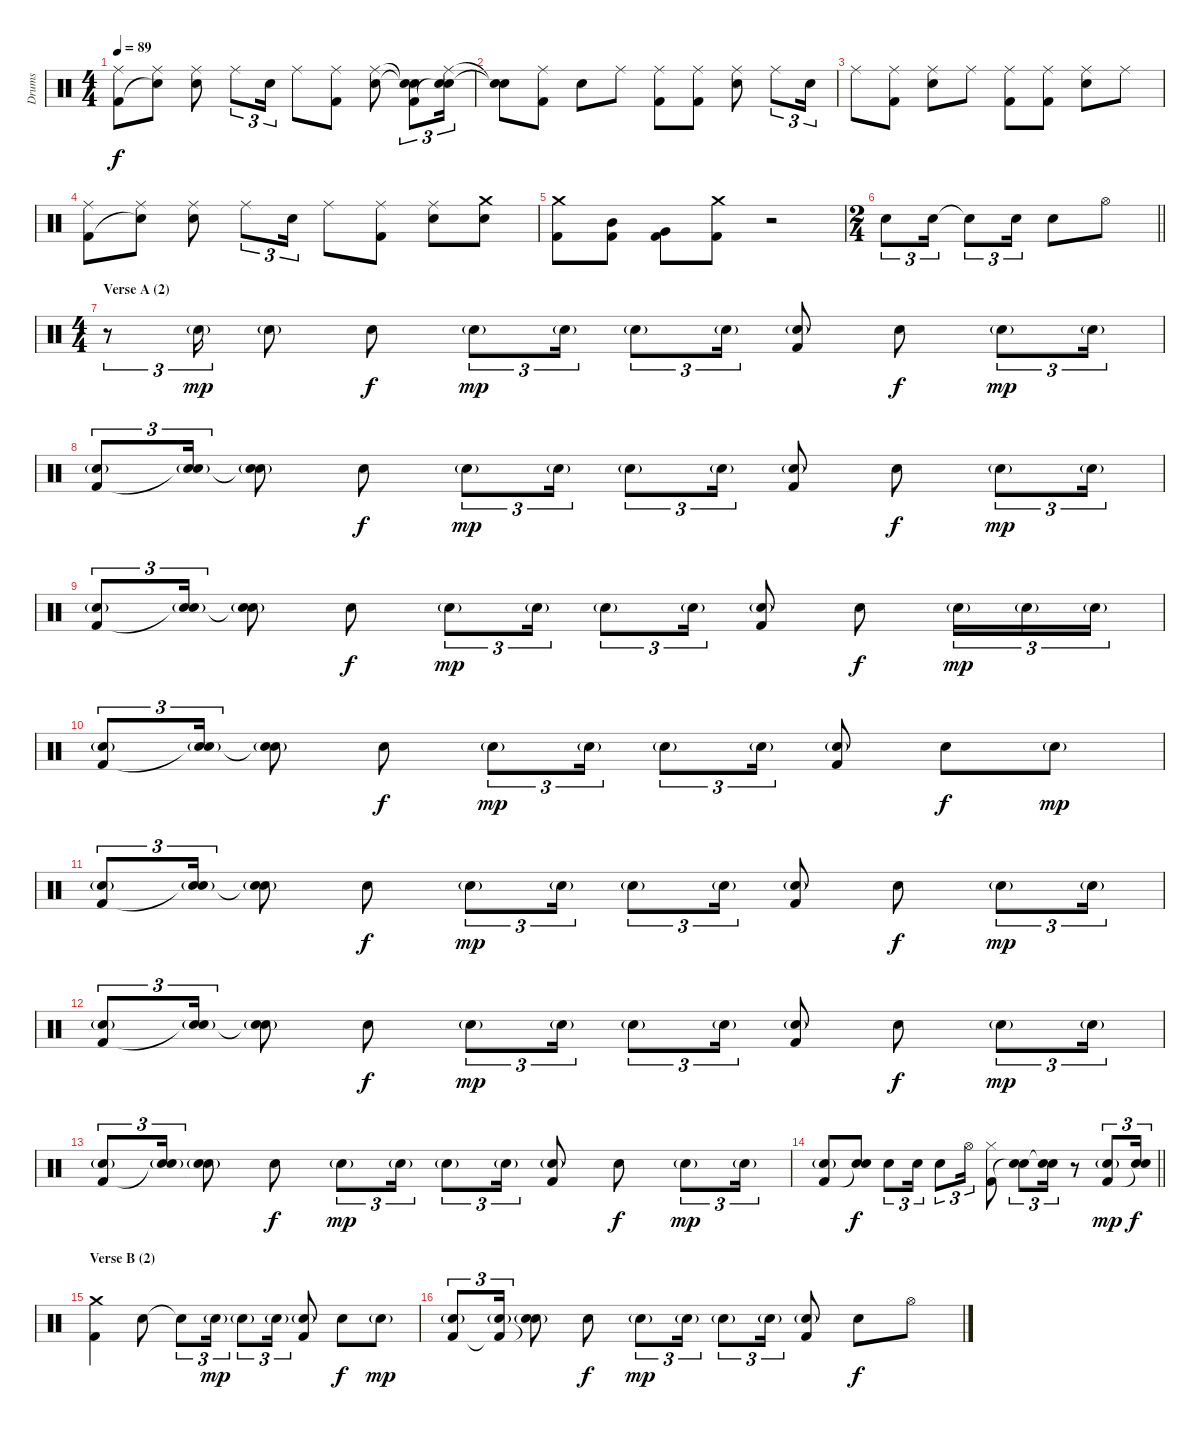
\track ("Drums" "Drums") {instrument percussion}
\staff {score}
\articulation defaults
\ts (4 4)
\tempo 89
\clef neutral
\ks c
("Ride (middle)" "Kick (hit) 2").8{dy f} ("Ride (middle)" "Snare (hit)"{t}).8 ("Ride (middle)" "Electric Snare (hit)").8 "Ride (middle)".8{tu (3 2)} "Electric Snare (hit)".16{tu (3 2)} "Ride (middle)".8 ("Ride (middle)" "Kick (hit) 2").8 ("Ride (middle)" "Electric Snare (hit)").8 ("Snare (hit)"{t} "Snare (hit)"{t} "Kick (hit) 2").8{tu (3 2)} ("Ride (middle)" "Electric Snare (hit)" "Snare (hit)"{t}).16{tu (3 2)} |
("Snare (hit)"{t} "Snare (hit)"{t}).8 ("Ride (middle)" "Kick (hit) 2").8 "Electric Snare (hit)".8 "Ride (middle)".8 ("Ride (middle)" "Kick (hit) 2").8 ("Ride (middle)" "Kick (hit) 2").8 ("Ride (middle)" "Electric Snare (hit)").8 "Ride (middle)".8{tu (3 2)} "Electric Snare (hit)".16{tu (3 2)} |
"Ride (middle)".8 ("Ride (middle)" "Kick (hit) 2").8 ("Ride (middle)" "Electric Snare (hit)").8 "Ride (middle)".8 ("Ride (middle)" "Kick (hit) 2").8 ("Ride (middle)" "Kick (hit) 2").8 ("Ride (middle)" "Electric Snare (hit)").8 "Ride (middle)".8 |
("Ride (middle)" "Kick (hit) 2").8 ("Ride (middle)" "Snare (hit)"{t}).8 ("Ride (middle)" "Electric Snare (hit)").8 "Ride (middle)".8{tu (3 2)} "Electric Snare (hit)".16{tu (3 2)} "Ride (middle)".8 ("Ride (middle)" "Kick (hit) 2").8 ("Ride (middle)" "Electric Snare (hit)").8 ("Crash medium (hit)" "Electric Snare (hit)").8 |
("Crash medium (hit)" "Kick (hit) 2").8 ("Mid Tom (hit)" "Kick (hit) 2").8 ("Very Low Tom (hit)" "Kick (hit) 2").8 ("Crash medium (hit)" "Kick (hit) 2").8 r.2 |
\ts (2 4)
\barLineRight lightlight "Electric Snare (hit)".8{tu (3 2)} "Electric Snare (hit)".16{tu (3 2)} "Snare (hit)"{t}.8{tu (3 2)} "Electric Snare (hit)".16{tu (3 2)} "Electric Snare (hit)".8 "Hi-Hat (open)".8
|
\ts (4 4)
\section ("" "Verse A (2)")
r.8{tu (3 2)} "Electric Snare (hit)"{g}.16{tu (3 2) dy mp} "Electric Snare (hit)"{g}.8 "Electric Snare (hit)".8{dy f} "Electric Snare (hit)"{g}.8{tu (3 2) dy mp} "Electric Snare (hit)"{g}.16{tu (3 2)} "Electric Snare (hit)"{g}.8{tu (3 2)} "Electric Snare (hit)"{g}.16{tu (3 2)} ("Electric Snare (hit)"{g} "Kick (hit) 2").8 "Electric Snare (hit)".8{dy f} "Electric Snare (hit)"{g}.8{tu (3 2) dy mp} "Electric Snare (hit)"{g}.16{tu (3 2)} |
("Electric Snare (hit)"{g} "Kick (hit) 2").8{tu (3 2)} ("Electric Snare (hit)"{g} "Snare (hit)"{t}).16{tu (3 2)} ("Electric Snare (hit)"{g} "Snare (hit)"{t}).8 "Electric Snare (hit)".8{dy f} "Electric Snare (hit)"{g}.8{tu (3 2) dy mp} "Electric Snare (hit)"{g}.16{tu (3 2)} "Electric Snare (hit)"{g}.8{tu (3 2)} "Electric Snare (hit)"{g}.16{tu (3 2)} ("Electric Snare (hit)"{g} "Kick (hit) 2").8 "Electric Snare (hit)".8{dy f} "Electric Snare (hit)"{g}.8{tu (3 2) dy mp} "Electric Snare (hit)"{g}.16{tu (3 2)} |
("Electric Snare (hit)"{g} "Kick (hit) 2").8{tu (3 2)} ("Electric Snare (hit)"{g} "Snare (hit)"{t}).16{tu (3 2)} ("Electric Snare (hit)"{g} "Snare (hit)"{t}).8 "Electric Snare (hit)".8{dy f} "Electric Snare (hit)"{g}.8{tu (3 2) dy mp} "Electric Snare (hit)"{g}.16{tu (3 2)} "Electric Snare (hit)"{g}.8{tu (3 2)} "Electric Snare (hit)"{g}.16{tu (3 2)} ("Electric Snare (hit)"{g} "Kick (hit) 2").8 "Electric Snare (hit)".8{dy f} "Electric Snare (hit)"{g}.16{tu (3 2) dy mp} "Electric Snare (hit)"{g}.16{tu (3 2)} "Electric Snare (hit)"{g}.16{tu (3 2)} |
("Electric Snare (hit)"{g} "Kick (hit) 2").8{tu (3 2)} ("Electric Snare (hit)"{g} "Snare (hit)"{t}).16{tu (3 2)} ("Electric Snare (hit)"{g} "Snare (hit)"{t}).8 "Electric Snare (hit)".8{dy f} "Electric Snare (hit)"{g}.8{tu (3 2) dy mp} "Electric Snare (hit)"{g}.16{tu (3 2)} "Electric Snare (hit)"{g}.8{tu (3 2)} "Electric Snare (hit)"{g}.16{tu (3 2)} ("Electric Snare (hit)"{g} "Kick (hit) 2").8 "Electric Snare (hit)".8{dy f} "Electric Snare (hit)"{g}.8{dy mp} |
("Electric Snare (hit)"{g} "Kick (hit) 2").8{tu (3 2)} ("Electric Snare (hit)"{g} "Snare (hit)"{t}).16{tu (3 2)} ("Electric Snare (hit)"{g} "Snare (hit)"{t}).8 "Electric Snare (hit)".8{dy f} "Electric Snare (hit)"{g}.8{tu (3 2) dy mp} "Electric Snare (hit)"{g}.16{tu (3 2)} "Electric Snare (hit)"{g}.8{tu (3 2)} "Electric Snare (hit)"{g}.16{tu (3 2)} ("Electric Snare (hit)"{g} "Kick (hit) 2").8 "Electric Snare (hit)".8{dy f} "Electric Snare (hit)"{g}.8{tu (3 2) dy mp} "Electric Snare (hit)"{g}.16{tu (3 2)} |
("Electric Snare (hit)"{g} "Kick (hit) 2").8{tu (3 2)} ("Electric Snare (hit)"{g} "Snare (hit)"{t}).16{tu (3 2)} ("Electric Snare (hit)"{g} "Snare (hit)"{t}).8 "Electric Snare (hit)".8{dy f} "Electric Snare (hit)"{g}.8{tu (3 2) dy mp} "Electric Snare (hit)"{g}.16{tu (3 2)} "Electric Snare (hit)"{g}.8{tu (3 2)} "Electric Snare (hit)"{g}.16{tu (3 2)} ("Electric Snare (hit)"{g} "Kick (hit) 2").8 "Electric Snare (hit)".8{dy f} "Electric Snare (hit)"{g}.8{tu (3 2) dy mp} "Electric Snare (hit)"{g}.16{tu (3 2)} |
("Electric Snare (hit)"{g} "Kick (hit) 2").8{tu (3 2)} ("Electric Snare (hit)"{g} "Snare (hit)"{t}).16{tu (3 2)} ("Electric Snare (hit)"{g} "Snare (hit)"{t}).8 "Electric Snare (hit)".8{dy f} "Electric Snare (hit)"{g}.8{tu (3 2) dy mp} "Electric Snare (hit)"{g}.16{tu (3 2)} "Electric Snare (hit)"{g}.8{tu (3 2)} "Electric Snare (hit)"{g}.16{tu (3 2)} ("Electric Snare (hit)"{g} "Kick (hit) 2").8 "Electric Snare (hit)".8{dy f} "Electric Snare (hit)"{g}.8{tu (3 2) dy mp} "Electric Snare (hit)"{g}.16{tu (3 2)} |
\barLineRight lightlight
("Electric Snare (hit)"{g} "Kick (hit) 2").8 ("Electric Snare (hit)" "Snare (hit)"{t}).8{dy f} "Electric Snare (hit)".8{tu (3 2)} "Electric Snare (hit)".16{tu (3 2)} "Electric Snare (hit)".8{tu (3 2)} "Hi-Hat (open)".16{tu (3 2)} ("Hi-Hat (closed)" "Kick (hit) 2").8 ("Electric Snare (hit)" "Snare (hit)"{t}).8{tu (3 2)} ("Electric Snare (hit)" "Snare (hit)"{t}).16{tu (3 2)} r.8 ("Electric Snare (hit)"{g} "Kick (hit) 2").8{tu (3 2) dy mp} ("Electric Snare (hit)" "Snare (hit)"{t}).16{tu (3 2) dy f} |
\section ("" "Verse B (2)")
("Crash medium (hit)" "Kick (hit) 2").4 "Electric Snare (hit)".8 "Snare (hit)"{t}.8{tu (3 2)} "Electric Snare (hit)"{g}.16{tu (3 2) dy mp} "Electric Snare (hit)"{g}.8{tu (3 2)} "Electric Snare (hit)"{g}.16{tu (3 2)} ("Electric Snare (hit)"{g} "Kick (hit) 2").8 "Electric Snare (hit)".8{dy f} "Electric Snare (hit)"{g}.8{dy mp} |
("Electric Snare (hit)"{g} "Kick (hit) 2").8{tu (3 2)} ("Electric Snare (hit)"{g} "Kick (hit) 2"{t}).16{tu (3 2)} ("Electric Snare (hit)"{g} "Snare (hit)"{t}).8 "Electric Snare (hit)".8{dy f} "Electric Snare (hit)"{g}.8{tu (3 2) dy mp} "Electric Snare (hit)"{g}.16{tu (3 2)} "Electric Snare (hit)"{g}.8{tu (3 2)} "Electric Snare (hit)"{g}.16{tu (3 2)} ("Electric Snare (hit)"{g} "Kick (hit) 2").8 "Electric Snare (hit)".8{dy f} "Hi-Hat (open)".8
